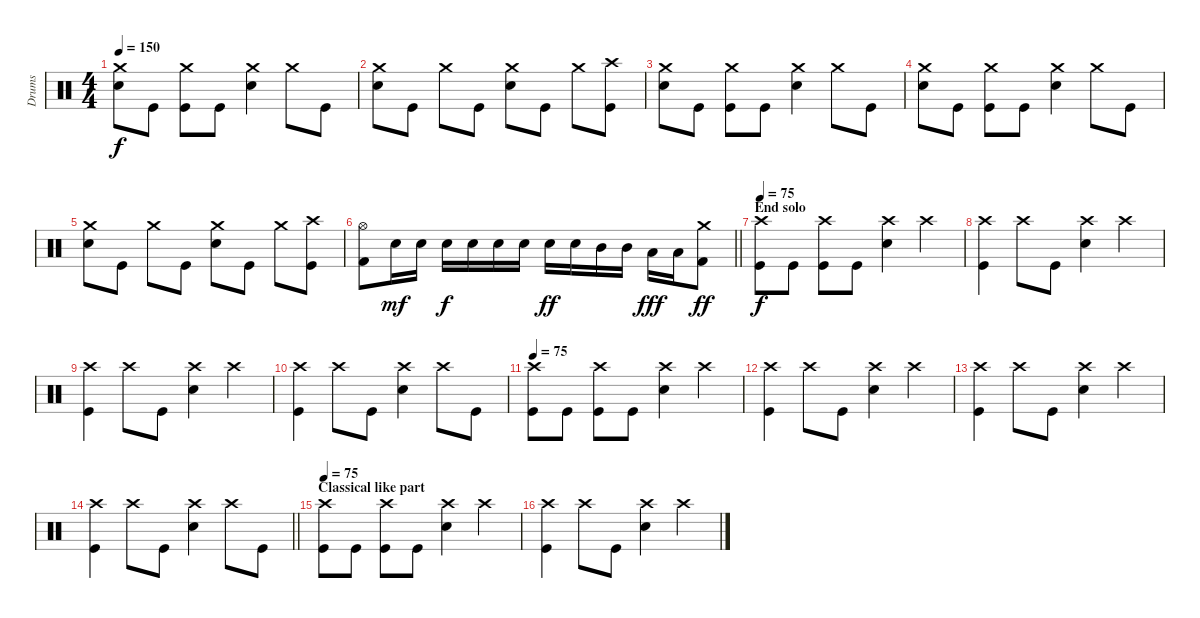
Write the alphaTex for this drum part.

\track ("Drums" "Drums") {instrument percussion}
\staff {score}
\articulation defaults
\ts (4 4)
\tempo 150
\clef neutral
\ks c
("Crash medium (hit)" "Electric Snare (hit)").8{dy f} "Kick (hit)".8 ("Crash medium (hit)" "Kick (hit)").8 "Kick (hit)".8 ("Crash medium (hit)" "Electric Snare (hit)").4 "Crash medium (hit)".8 "Kick (hit)".8 |
("Crash medium (hit)" "Electric Snare (hit)").8 "Kick (hit)".8 "Crash medium (hit)".8 "Kick (hit)".8 ("Crash medium (hit)" "Electric Snare (hit)").8 "Kick (hit)".8 "Crash medium (hit)".8 ("Crash high (hit)" "Kick (hit)").8 |
("Crash medium (hit)" "Electric Snare (hit)").8 "Kick (hit)".8 ("Crash medium (hit)" "Kick (hit)").8 "Kick (hit)".8 ("Crash medium (hit)" "Electric Snare (hit)").4 "Crash medium (hit)".8 "Kick (hit)".8 |
("Crash medium (hit)" "Electric Snare (hit)").8 "Kick (hit)".8 ("Crash medium (hit)" "Kick (hit)").8 "Kick (hit)".8 ("Crash medium (hit)" "Electric Snare (hit)").4 "Crash medium (hit)".8 "Kick (hit)".8 |
("Crash medium (hit)" "Electric Snare (hit)").8 "Kick (hit)".8 "Crash medium (hit)".8 "Kick (hit)".8 ("Crash medium (hit)" "Electric Snare (hit)").8 "Kick (hit)".8 "Crash medium (hit)".8 ("Crash high (hit)" "Kick (hit)").8 |
\barLineRight lightlight
("Hi-Hat (open)" "Kick (hit) 2").8 "Electric Snare (hit)".16{dy mf} "Electric Snare (hit)".16 "Electric Snare (hit)".16{dy f} "Electric Snare (hit)".16 "Electric Snare (hit)".16 "Electric Snare (hit)".16 "Electric Snare (hit)".16{dy ff} "Electric Snare (hit)".16 "Mid Tom (hit)".16 "Mid Tom (hit)".16 "Low Tom (hit)".16{dy fff} "Low Tom (hit)".16 ("Crash medium (hit)" "Kick (hit) 2").8{dy ff} |
\section ("" "End solo")
\tempo 75
("Crash high (hit)" "Kick (hit)").8{dy f} "Kick (hit)".8 ("Crash high (hit)" "Kick (hit)").8 "Kick (hit)".8 ("Crash high (hit)" "Snare (hit) 2").4 "Crash high (hit)".4 |
("Crash high (hit)" "Kick (hit)").4 "Crash high (hit)".8 "Kick (hit)".8 ("Crash high (hit)" "Snare (hit) 2").4 "Crash high (hit)".4 |
("Crash high (hit)" "Kick (hit)").4 "Crash high (hit)".8 "Kick (hit)".8 ("Crash high (hit)" "Snare (hit) 2").4 "Crash high (hit)".4 |
("Crash high (hit)" "Kick (hit)").4 "Crash high (hit)".8 "Kick (hit)".8 ("Crash high (hit)" "Snare (hit) 2").4 "Crash high (hit)".8 "Kick (hit)".8 |
\tempo 75
("Crash high (hit)" "Kick (hit)").8 "Kick (hit)".8 ("Crash high (hit)" "Kick (hit)").8 "Kick (hit)".8 ("Crash high (hit)" "Snare (hit) 2").4 "Crash high (hit)".4 |
("Crash high (hit)" "Kick (hit)").4 "Crash high (hit)".8 "Kick (hit)".8 ("Crash high (hit)" "Snare (hit) 2").4 "Crash high (hit)".4 |
("Crash high (hit)" "Kick (hit)").4 "Crash high (hit)".8 "Kick (hit)".8 ("Crash high (hit)" "Snare (hit) 2").4 "Crash high (hit)".4 |
\barLineRight lightlight
("Crash high (hit)" "Kick (hit)").4 "Crash high (hit)".8 "Kick (hit)".8 ("Crash high (hit)" "Snare (hit) 2").4 "Crash high (hit)".8 "Kick (hit)".8 |
\section ("" "Classical like part")
\tempo 75
("Crash high (hit)" "Kick (hit)").8 "Kick (hit)".8 ("Crash high (hit)" "Kick (hit)").8 "Kick (hit)".8 ("Crash high (hit)" "Snare (hit) 2").4 "Crash high (hit)".4 |
("Crash high (hit)" "Kick (hit)").4 "Crash high (hit)".8 "Kick (hit)".8 ("Crash high (hit)" "Snare (hit) 2").4 "Crash high (hit)".4
